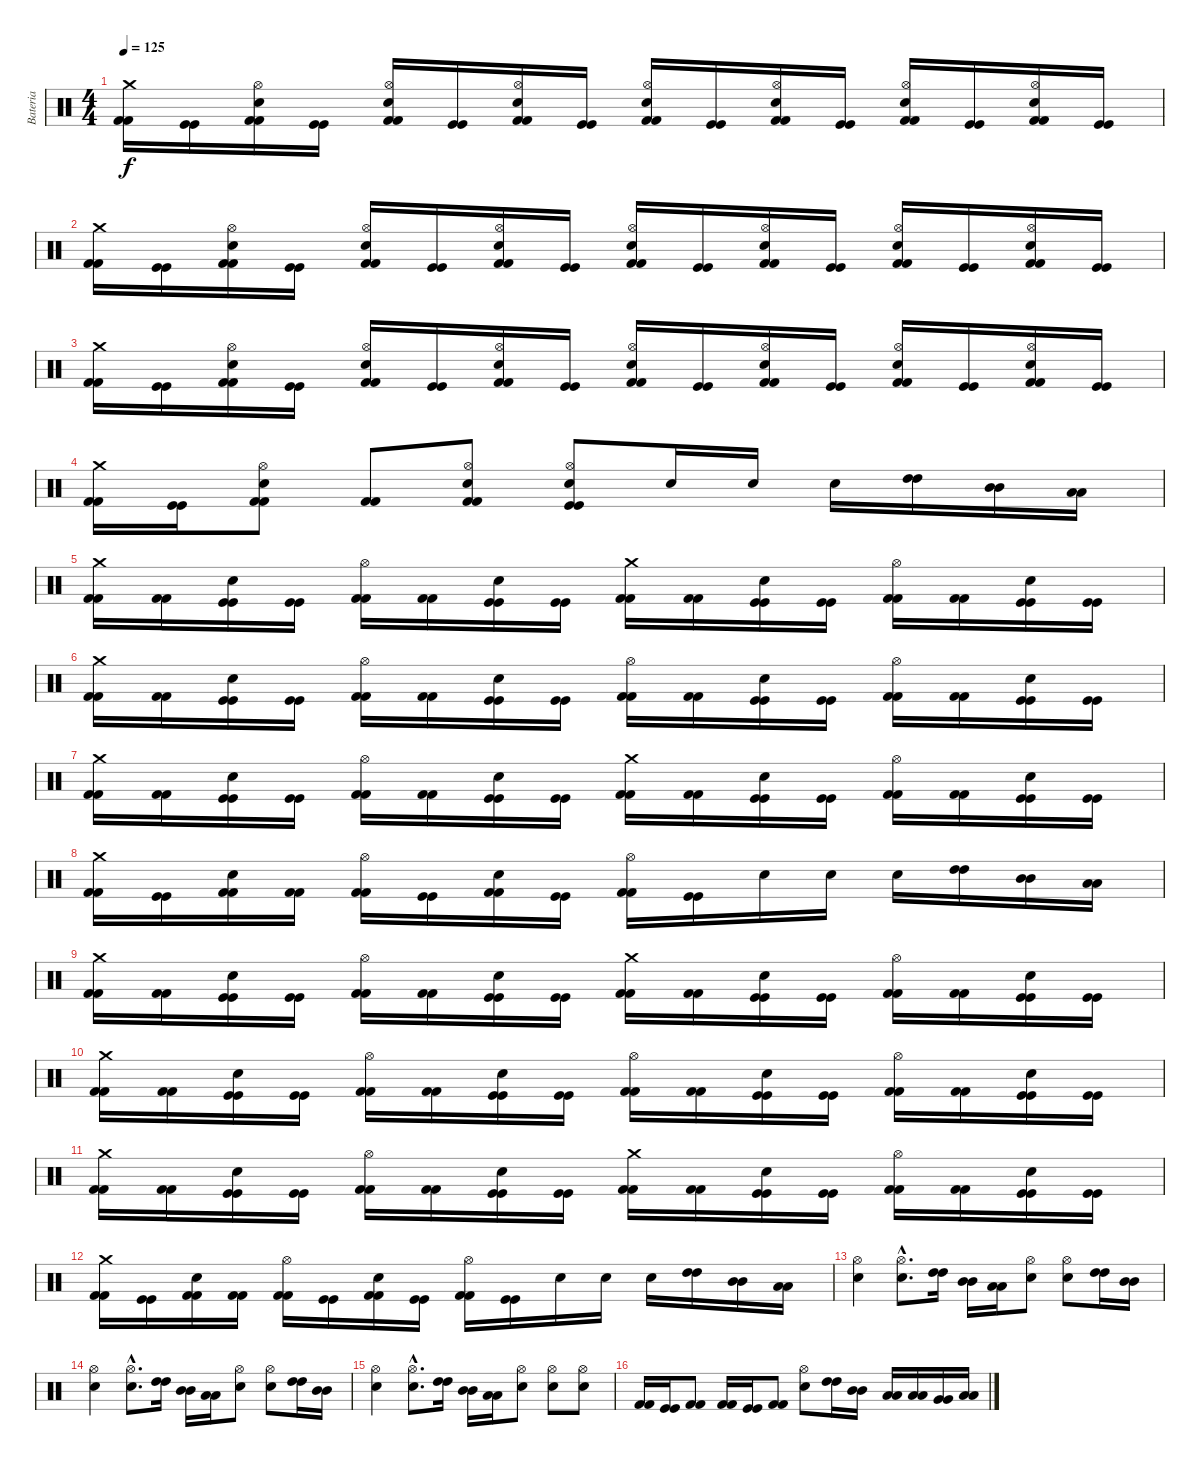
\track ("Bateria" "Bateria") {instrument percussion}
\staff {score}
\articulation defaults
\ts (4 4)
\tempo 125
\clef neutral
\ks c
("Crash medium (hit)" "Kick (hit) 2" "Kick (hit) 2").16{dy f} ("Kick (hit)" "Kick (hit)").16 ("Hi-Hat (open)" "Electric Snare (hit)" "Kick (hit) 2" "Kick (hit) 2").16 ("Kick (hit)" "Kick (hit)").16 ("Hi-Hat (open)" "Electric Snare (hit)" "Kick (hit) 2" "Kick (hit) 2").16 ("Kick (hit)" "Kick (hit)").16 ("Hi-Hat (open)" "Electric Snare (hit)" "Kick (hit) 2" "Kick (hit) 2").16 ("Kick (hit)" "Kick (hit)").16 ("Hi-Hat (open)" "Electric Snare (hit)" "Kick (hit) 2" "Kick (hit) 2").16 ("Kick (hit)" "Kick (hit)").16 ("Hi-Hat (open)" "Electric Snare (hit)" "Kick (hit) 2" "Kick (hit) 2").16 ("Kick (hit)" "Kick (hit)").16 ("Hi-Hat (open)" "Electric Snare (hit)" "Kick (hit) 2" "Kick (hit) 2").16 ("Kick (hit)" "Kick (hit)").16 ("Hi-Hat (open)" "Electric Snare (hit)" "Kick (hit) 2" "Kick (hit) 2").16 ("Kick (hit)" "Kick (hit)").16 |
("Crash medium (hit)" "Kick (hit) 2" "Kick (hit) 2").16 ("Kick (hit)" "Kick (hit)").16 ("Hi-Hat (open)" "Electric Snare (hit)" "Kick (hit) 2" "Kick (hit) 2").16 ("Kick (hit)" "Kick (hit)").16 ("Hi-Hat (open)" "Electric Snare (hit)" "Kick (hit) 2" "Kick (hit) 2").16 ("Kick (hit)" "Kick (hit)").16 ("Hi-Hat (open)" "Electric Snare (hit)" "Kick (hit) 2" "Kick (hit) 2").16 ("Kick (hit)" "Kick (hit)").16 ("Hi-Hat (open)" "Electric Snare (hit)" "Kick (hit) 2" "Kick (hit) 2").16 ("Kick (hit)" "Kick (hit)").16 ("Hi-Hat (open)" "Electric Snare (hit)" "Kick (hit) 2" "Kick (hit) 2").16 ("Kick (hit)" "Kick (hit)").16 ("Hi-Hat (open)" "Electric Snare (hit)" "Kick (hit) 2" "Kick (hit) 2").16 ("Kick (hit)" "Kick (hit)").16 ("Hi-Hat (open)" "Electric Snare (hit)" "Kick (hit) 2" "Kick (hit) 2").16 ("Kick (hit)" "Kick (hit)").16 |
("Crash medium (hit)" "Kick (hit) 2" "Kick (hit) 2").16 ("Kick (hit)" "Kick (hit)").16 ("Hi-Hat (open)" "Electric Snare (hit)" "Kick (hit) 2" "Kick (hit) 2").16 ("Kick (hit)" "Kick (hit)").16 ("Hi-Hat (open)" "Electric Snare (hit)" "Kick (hit) 2" "Kick (hit) 2").16 ("Kick (hit)" "Kick (hit)").16 ("Hi-Hat (open)" "Electric Snare (hit)" "Kick (hit) 2" "Kick (hit) 2").16 ("Kick (hit)" "Kick (hit)").16 ("Hi-Hat (open)" "Electric Snare (hit)" "Kick (hit) 2" "Kick (hit) 2").16 ("Kick (hit)" "Kick (hit)").16 ("Hi-Hat (open)" "Electric Snare (hit)" "Kick (hit) 2" "Kick (hit) 2").16 ("Kick (hit)" "Kick (hit)").16 ("Hi-Hat (open)" "Electric Snare (hit)" "Kick (hit) 2" "Kick (hit) 2").16 ("Kick (hit)" "Kick (hit)").16 ("Hi-Hat (open)" "Electric Snare (hit)" "Kick (hit) 2" "Kick (hit) 2").16 ("Kick (hit)" "Kick (hit)").16 |
("Crash medium (hit)" "Kick (hit) 2" "Kick (hit) 2").16 ("Kick (hit)" "Kick (hit)").16 ("Hi-Hat (open)" "Electric Snare (hit)" "Kick (hit) 2" "Kick (hit) 2").8 ("Kick (hit) 2" "Kick (hit) 2").8 ("Hi-Hat (open)" "Electric Snare (hit)" "Kick (hit) 2" "Kick (hit) 2").8 ("Hi-Hat (open)" "Electric Snare (hit)" "Kick (hit)" "Kick (hit)").8 "Electric Snare (hit)".16 "Electric Snare (hit)".16 "Electric Snare (hit)".16 ("High Tom (hit)" "High Tom (hit)").16 ("Mid Tom (hit)" "Mid Tom (hit)").16 ("Low Tom (hit)" "Low Tom (hit)").16 |
("Crash medium (hit)" "Kick (hit) 2" "Kick (hit) 2").16 ("Kick (hit) 2" "Kick (hit) 2").16 ("Electric Snare (hit)" "Kick (hit)" "Kick (hit)").16 ("Kick (hit)" "Kick (hit)").16 ("Hi-Hat (open)" "Kick (hit) 2" "Kick (hit) 2").16 ("Kick (hit) 2" "Kick (hit) 2").16 ("Electric Snare (hit)" "Kick (hit)" "Kick (hit)").16 ("Kick (hit)" "Kick (hit)").16 ("Crash medium (hit)" "Kick (hit) 2" "Kick (hit) 2").16 ("Kick (hit) 2" "Kick (hit) 2").16 ("Electric Snare (hit)" "Kick (hit)" "Kick (hit)").16 ("Kick (hit)" "Kick (hit)").16 ("Hi-Hat (open)" "Kick (hit) 2" "Kick (hit) 2").16 ("Kick (hit) 2" "Kick (hit) 2").16 ("Electric Snare (hit)" "Kick (hit)" "Kick (hit)").16 ("Kick (hit)" "Kick (hit)").16 |
("Crash medium (hit)" "Kick (hit) 2" "Kick (hit) 2").16 ("Kick (hit) 2" "Kick (hit) 2").16 ("Electric Snare (hit)" "Kick (hit)" "Kick (hit)").16 ("Kick (hit)" "Kick (hit)").16 ("Hi-Hat (open)" "Kick (hit) 2" "Kick (hit) 2").16 ("Kick (hit) 2" "Kick (hit) 2").16 ("Electric Snare (hit)" "Kick (hit)" "Kick (hit)").16 ("Kick (hit)" "Kick (hit)").16 ("Hi-Hat (open)" "Kick (hit) 2" "Kick (hit) 2").16 ("Kick (hit) 2" "Kick (hit) 2").16 ("Electric Snare (hit)" "Kick (hit)" "Kick (hit)").16 ("Kick (hit)" "Kick (hit)").16 ("Hi-Hat (open)" "Kick (hit) 2" "Kick (hit) 2").16 ("Kick (hit) 2" "Kick (hit) 2").16 ("Electric Snare (hit)" "Kick (hit)" "Kick (hit)").16 ("Kick (hit)" "Kick (hit)").16 |
("Crash medium (hit)" "Kick (hit) 2" "Kick (hit) 2").16 ("Kick (hit) 2" "Kick (hit) 2").16 ("Electric Snare (hit)" "Kick (hit)" "Kick (hit)").16 ("Kick (hit)" "Kick (hit)").16 ("Hi-Hat (open)" "Kick (hit) 2" "Kick (hit) 2").16 ("Kick (hit) 2" "Kick (hit) 2").16 ("Electric Snare (hit)" "Kick (hit)" "Kick (hit)").16 ("Kick (hit)" "Kick (hit)").16 ("Crash medium (hit)" "Kick (hit) 2" "Kick (hit) 2").16 ("Kick (hit) 2" "Kick (hit) 2").16 ("Electric Snare (hit)" "Kick (hit)" "Kick (hit)").16 ("Kick (hit)" "Kick (hit)").16 ("Hi-Hat (open)" "Kick (hit) 2" "Kick (hit) 2").16 ("Kick (hit) 2" "Kick (hit) 2").16 ("Electric Snare (hit)" "Kick (hit)" "Kick (hit)").16 ("Kick (hit)" "Kick (hit)").16 |
("Crash medium (hit)" "Kick (hit) 2" "Kick (hit) 2").16 ("Kick (hit)" "Kick (hit)").16 ("Electric Snare (hit)" "Kick (hit) 2" "Kick (hit) 2").16 ("Kick (hit) 2" "Kick (hit) 2").16 ("Hi-Hat (open)" "Kick (hit) 2" "Kick (hit) 2").16 ("Kick (hit)" "Kick (hit)").16 ("Electric Snare (hit)" "Kick (hit) 2" "Kick (hit) 2").16 ("Kick (hit)" "Kick (hit)").16 ("Hi-Hat (open)" "Kick (hit) 2" "Kick (hit) 2").16 ("Kick (hit)" "Kick (hit)").16 "Electric Snare (hit)".16 "Electric Snare (hit)".16 "Electric Snare (hit)".16 ("High Tom (hit)" "High Tom (hit)").16 ("Mid Tom (hit)" "Mid Tom (hit)").16 ("Low Tom (hit)" "Low Tom (hit)").16 |
("Crash medium (hit)" "Kick (hit) 2" "Kick (hit) 2").16 ("Kick (hit) 2" "Kick (hit) 2").16 ("Electric Snare (hit)" "Kick (hit)" "Kick (hit)").16 ("Kick (hit)" "Kick (hit)").16 ("Hi-Hat (open)" "Kick (hit) 2" "Kick (hit) 2").16 ("Kick (hit) 2" "Kick (hit) 2").16 ("Electric Snare (hit)" "Kick (hit)" "Kick (hit)").16 ("Kick (hit)" "Kick (hit)").16 ("Crash medium (hit)" "Kick (hit) 2" "Kick (hit) 2").16 ("Kick (hit) 2" "Kick (hit) 2").16 ("Electric Snare (hit)" "Kick (hit)" "Kick (hit)").16 ("Kick (hit)" "Kick (hit)").16 ("Hi-Hat (open)" "Kick (hit) 2" "Kick (hit) 2").16 ("Kick (hit) 2" "Kick (hit) 2").16 ("Electric Snare (hit)" "Kick (hit)" "Kick (hit)").16 ("Kick (hit)" "Kick (hit)").16 |
("Crash medium (hit)" "Kick (hit) 2" "Kick (hit) 2").16 ("Kick (hit) 2" "Kick (hit) 2").16 ("Electric Snare (hit)" "Kick (hit)" "Kick (hit)").16 ("Kick (hit)" "Kick (hit)").16 ("Hi-Hat (open)" "Kick (hit) 2" "Kick (hit) 2").16 ("Kick (hit) 2" "Kick (hit) 2").16 ("Electric Snare (hit)" "Kick (hit)" "Kick (hit)").16 ("Kick (hit)" "Kick (hit)").16 ("Hi-Hat (open)" "Kick (hit) 2" "Kick (hit) 2").16 ("Kick (hit) 2" "Kick (hit) 2").16 ("Electric Snare (hit)" "Kick (hit)" "Kick (hit)").16 ("Kick (hit)" "Kick (hit)").16 ("Hi-Hat (open)" "Kick (hit) 2" "Kick (hit) 2").16 ("Kick (hit) 2" "Kick (hit) 2").16 ("Electric Snare (hit)" "Kick (hit)" "Kick (hit)").16 ("Kick (hit)" "Kick (hit)").16 |
("Crash medium (hit)" "Kick (hit) 2" "Kick (hit) 2").16 ("Kick (hit) 2" "Kick (hit) 2").16 ("Electric Snare (hit)" "Kick (hit)" "Kick (hit)").16 ("Kick (hit)" "Kick (hit)").16 ("Hi-Hat (open)" "Kick (hit) 2" "Kick (hit) 2").16 ("Kick (hit) 2" "Kick (hit) 2").16 ("Electric Snare (hit)" "Kick (hit)" "Kick (hit)").16 ("Kick (hit)" "Kick (hit)").16 ("Crash medium (hit)" "Kick (hit) 2" "Kick (hit) 2").16 ("Kick (hit) 2" "Kick (hit) 2").16 ("Electric Snare (hit)" "Kick (hit)" "Kick (hit)").16 ("Kick (hit)" "Kick (hit)").16 ("Hi-Hat (open)" "Kick (hit) 2" "Kick (hit) 2").16 ("Kick (hit) 2" "Kick (hit) 2").16 ("Electric Snare (hit)" "Kick (hit)" "Kick (hit)").16 ("Kick (hit)" "Kick (hit)").16 |
("Crash medium (hit)" "Kick (hit) 2" "Kick (hit) 2").16 ("Kick (hit)" "Kick (hit)").16 ("Electric Snare (hit)" "Kick (hit) 2" "Kick (hit) 2").16 ("Kick (hit) 2" "Kick (hit) 2").16 ("Hi-Hat (open)" "Kick (hit) 2" "Kick (hit) 2").16 ("Kick (hit)" "Kick (hit)").16 ("Electric Snare (hit)" "Kick (hit) 2" "Kick (hit) 2").16 ("Kick (hit)" "Kick (hit)").16 ("Hi-Hat (open)" "Kick (hit) 2" "Kick (hit) 2").16 ("Kick (hit)" "Kick (hit)").16 "Electric Snare (hit)".16 "Electric Snare (hit)".16 "Electric Snare (hit)".16 ("High Tom (hit)" "High Tom (hit)").16 ("Mid Tom (hit)" "Mid Tom (hit)").16 ("Low Tom (hit)" "Low Tom (hit)").16 |
("Hi-Hat (open)" "Electric Snare (hit)").4 ("Hi-Hat (open)"{hac} "Electric Snare (hit)"{hac}).8{d} ("High Tom (hit)" "High Tom (hit)").16 ("Mid Tom (hit)" "Mid Tom (hit)").16 ("Low Tom (hit)" "Low Tom (hit)").16 ("Hi-Hat (open)" "Electric Snare (hit)").8 ("Hi-Hat (open)" "Electric Snare (hit)").8 ("High Tom (hit)" "High Tom (hit)").16 ("Mid Tom (hit)" "Mid Tom (hit)").16 |
("Hi-Hat (open)" "Electric Snare (hit)").4 ("Hi-Hat (open)"{hac} "Electric Snare (hit)"{hac}).8{d} ("High Tom (hit)" "High Tom (hit)").16 ("Mid Tom (hit)" "Mid Tom (hit)").16 ("Low Tom (hit)" "Low Tom (hit)").16 ("Hi-Hat (open)" "Electric Snare (hit)").8 ("Hi-Hat (open)" "Electric Snare (hit)").8 ("High Tom (hit)" "High Tom (hit)").16 ("Mid Tom (hit)" "Mid Tom (hit)").16 |
("Hi-Hat (open)" "Electric Snare (hit)").4 ("Hi-Hat (open)"{hac} "Electric Snare (hit)"{hac}).8{d} ("High Tom (hit)" "High Tom (hit)").16 ("Mid Tom (hit)" "Mid Tom (hit)").16 ("Low Tom (hit)" "Low Tom (hit)").16 ("Hi-Hat (open)" "Electric Snare (hit)").8 ("Hi-Hat (open)" "Electric Snare (hit)").8 ("Hi-Hat (open)" "Electric Snare (hit)").8 |
("Kick (hit) 2" "Kick (hit) 2").16 ("Kick (hit)" "Kick (hit)").16 ("Kick (hit) 2" "Kick (hit) 2").8 ("Kick (hit) 2" "Kick (hit) 2").16 ("Kick (hit)" "Kick (hit)").16 ("Kick (hit) 2" "Kick (hit) 2").8 ("Hi-Hat (open)" "Electric Snare (hit)").8 ("High Tom (hit)" "High Tom (hit)").16 ("Mid Tom (hit)" "Mid Tom (hit)").16 ("Low Tom (hit)" "Low Tom (hit)").16 ("Low Tom (hit)" "Low Tom (hit)").16 ("Very Low Tom (hit)" "Very Low Tom (hit)").16 ("Low Floor Tom (hit)" "Low Floor Tom (hit)").16
